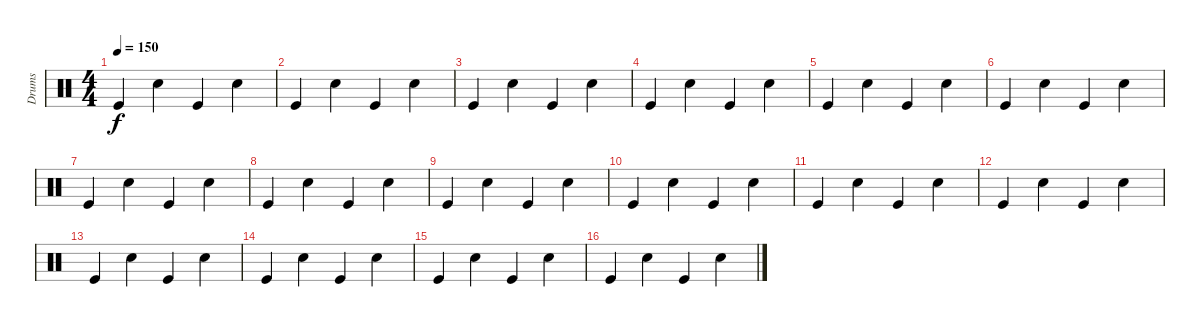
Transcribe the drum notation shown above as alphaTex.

\track ("Drums" "Drums") {instrument percussion}
\staff {score}
\articulation defaults
\ts (4 4)
\tempo 150
\clef neutral
\ks c "Kick (hit)".4{dy f} "Snare (hit) 2".4 "Kick (hit)".4 "Snare (hit) 2".4
|
"Kick (hit)".4 "Snare (hit) 2".4 "Kick (hit)".4 "Snare (hit) 2".4 |
"Kick (hit)".4 "Snare (hit) 2".4 "Kick (hit)".4 "Snare (hit) 2".4 |
"Kick (hit)".4 "Snare (hit) 2".4 "Kick (hit)".4 "Snare (hit) 2".4 |
"Kick (hit)".4 "Snare (hit) 2".4 "Kick (hit)".4 "Snare (hit) 2".4 |
"Kick (hit)".4 "Snare (hit) 2".4 "Kick (hit)".4 "Snare (hit) 2".4 |
"Kick (hit)".4 "Snare (hit) 2".4 "Kick (hit)".4 "Snare (hit) 2".4 |
"Kick (hit)".4 "Snare (hit) 2".4 "Kick (hit)".4 "Snare (hit) 2".4 |
"Kick (hit)".4 "Snare (hit) 2".4 "Kick (hit)".4 "Snare (hit) 2".4 |
"Kick (hit)".4 "Snare (hit) 2".4 "Kick (hit)".4 "Snare (hit) 2".4 |
"Kick (hit)".4 "Snare (hit) 2".4 "Kick (hit)".4 "Snare (hit) 2".4 |
"Kick (hit)".4 "Snare (hit) 2".4 "Kick (hit)".4 "Snare (hit) 2".4 |
"Kick (hit)".4 "Snare (hit) 2".4 "Kick (hit)".4 "Snare (hit) 2".4 |
"Kick (hit)".4 "Snare (hit) 2".4 "Kick (hit)".4 "Snare (hit) 2".4 |
"Kick (hit)".4 "Snare (hit) 2".4 "Kick (hit)".4 "Snare (hit) 2".4 |
"Kick (hit)".4 "Snare (hit) 2".4 "Kick (hit)".4 "Snare (hit) 2".4
